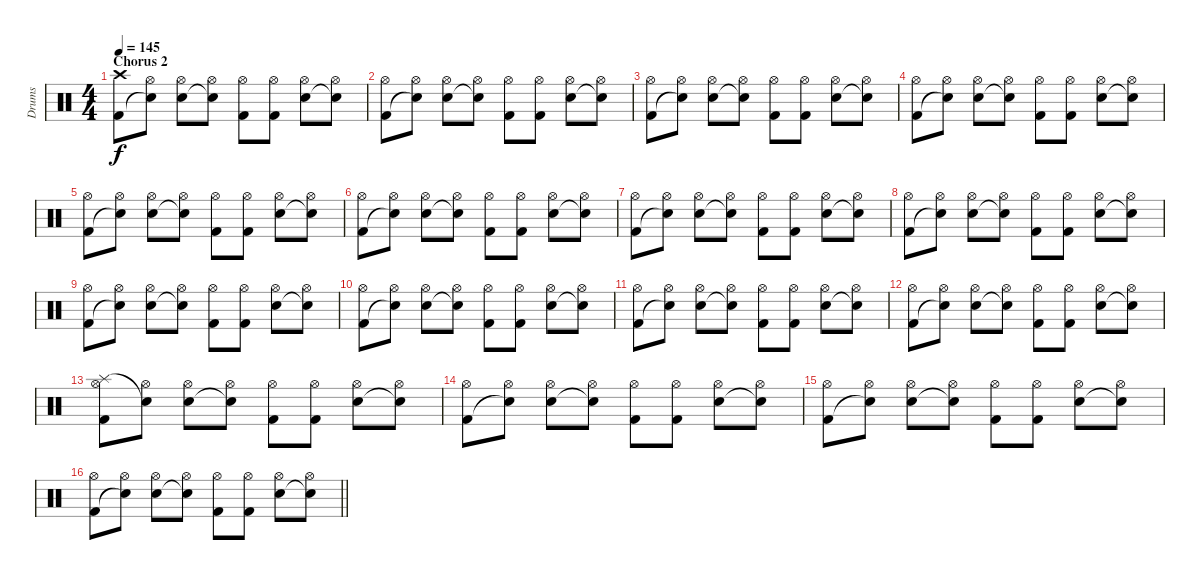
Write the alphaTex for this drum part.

\track ("Drums" "Drums") {instrument percussion}
\staff {score}
\articulation defaults
\ts (4 4)
\section ("" "Chorus 2")
\tempo 145
\clef neutral
\ks c
("Crash high (hit)" "Kick (hit) 2").8{dy f} ("Hi-Hat (open)" "Snare (hit)"{t}).8 ("Hi-Hat (open)" "Electric Snare (hit)").8 ("Hi-Hat (open)" "Snare (hit)"{t}).8 ("Hi-Hat (open)" "Kick (hit) 2").8 ("Hi-Hat (open)" "Kick (hit) 2").8 ("Hi-Hat (open)" "Electric Snare (hit)").8 ("Hi-Hat (open)" "Snare (hit)"{t}).8 |
("Hi-Hat (open)" "Kick (hit) 2").8 ("Hi-Hat (open)" "Snare (hit)"{t}).8 ("Hi-Hat (open)" "Electric Snare (hit)").8 ("Hi-Hat (open)" "Snare (hit)"{t}).8 ("Hi-Hat (open)" "Kick (hit) 2").8 ("Hi-Hat (open)" "Kick (hit) 2").8 ("Hi-Hat (open)" "Electric Snare (hit)").8 ("Hi-Hat (open)" "Snare (hit)"{t}).8 |
("Hi-Hat (open)" "Kick (hit) 2").8 ("Hi-Hat (open)" "Snare (hit)"{t}).8 ("Hi-Hat (open)" "Electric Snare (hit)").8 ("Hi-Hat (open)" "Snare (hit)"{t}).8 ("Hi-Hat (open)" "Kick (hit) 2").8 ("Hi-Hat (open)" "Kick (hit) 2").8 ("Hi-Hat (open)" "Electric Snare (hit)").8 ("Hi-Hat (open)" "Snare (hit)"{t}).8 |
("Hi-Hat (open)" "Kick (hit) 2").8 ("Hi-Hat (open)" "Snare (hit)"{t}).8 ("Hi-Hat (open)" "Electric Snare (hit)").8 ("Hi-Hat (open)" "Snare (hit)"{t}).8 ("Hi-Hat (open)" "Kick (hit) 2").8 ("Hi-Hat (open)" "Kick (hit) 2").8 ("Hi-Hat (open)" "Electric Snare (hit)").8 ("Hi-Hat (open)" "Snare (hit)"{t}).8 |
("Hi-Hat (open)" "Kick (hit) 2").8 ("Hi-Hat (open)" "Snare (hit)"{t}).8 ("Hi-Hat (open)" "Electric Snare (hit)").8 ("Hi-Hat (open)" "Snare (hit)"{t}).8 ("Hi-Hat (open)" "Kick (hit) 2").8 ("Hi-Hat (open)" "Kick (hit) 2").8 ("Hi-Hat (open)" "Electric Snare (hit)").8 ("Hi-Hat (open)" "Snare (hit)"{t}).8 |
("Hi-Hat (open)" "Kick (hit) 2").8 ("Hi-Hat (open)" "Snare (hit)"{t}).8 ("Hi-Hat (open)" "Electric Snare (hit)").8 ("Hi-Hat (open)" "Snare (hit)"{t}).8 ("Hi-Hat (open)" "Kick (hit) 2").8 ("Hi-Hat (open)" "Kick (hit) 2").8 ("Hi-Hat (open)" "Electric Snare (hit)").8 ("Hi-Hat (open)" "Snare (hit)"{t}).8 |
("Hi-Hat (open)" "Kick (hit) 2").8 ("Hi-Hat (open)" "Snare (hit)"{t}).8 ("Hi-Hat (open)" "Electric Snare (hit)").8 ("Hi-Hat (open)" "Snare (hit)"{t}).8 ("Hi-Hat (open)" "Kick (hit) 2").8 ("Hi-Hat (open)" "Kick (hit) 2").8 ("Hi-Hat (open)" "Electric Snare (hit)").8 ("Hi-Hat (open)" "Snare (hit)"{t}).8 |
("Hi-Hat (open)" "Kick (hit) 2").8 ("Hi-Hat (open)" "Snare (hit)"{t}).8 ("Hi-Hat (open)" "Electric Snare (hit)").8 ("Hi-Hat (open)" "Snare (hit)"{t}).8 ("Hi-Hat (open)" "Kick (hit) 2").8 ("Hi-Hat (open)" "Kick (hit) 2").8 ("Hi-Hat (open)" "Electric Snare (hit)").8 ("Hi-Hat (open)" "Snare (hit)"{t}).8 |
("Hi-Hat (open)" "Kick (hit) 2").8 ("Hi-Hat (open)" "Snare (hit)"{t}).8 ("Hi-Hat (open)" "Electric Snare (hit)").8 ("Hi-Hat (open)" "Snare (hit)"{t}).8 ("Hi-Hat (open)" "Kick (hit) 2").8 ("Hi-Hat (open)" "Kick (hit) 2").8 ("Hi-Hat (open)" "Electric Snare (hit)").8 ("Hi-Hat (open)" "Snare (hit)"{t}).8 |
("Hi-Hat (open)" "Kick (hit) 2").8 ("Hi-Hat (open)" "Snare (hit)"{t}).8 ("Hi-Hat (open)" "Electric Snare (hit)").8 ("Hi-Hat (open)" "Snare (hit)"{t}).8 ("Hi-Hat (open)" "Kick (hit) 2").8 ("Hi-Hat (open)" "Kick (hit) 2").8 ("Hi-Hat (open)" "Electric Snare (hit)").8 ("Hi-Hat (open)" "Snare (hit)"{t}).8 |
("Hi-Hat (open)" "Kick (hit) 2").8 ("Hi-Hat (open)" "Snare (hit)"{t}).8 ("Hi-Hat (open)" "Electric Snare (hit)").8 ("Hi-Hat (open)" "Snare (hit)"{t}).8 ("Hi-Hat (open)" "Kick (hit) 2").8 ("Hi-Hat (open)" "Kick (hit) 2").8 ("Hi-Hat (open)" "Electric Snare (hit)").8 ("Hi-Hat (open)" "Snare (hit)"{t}).8 |
("Hi-Hat (open)" "Kick (hit) 2").8 ("Hi-Hat (open)" "Snare (hit)"{t}).8 ("Hi-Hat (open)" "Electric Snare (hit)").8 ("Hi-Hat (open)" "Snare (hit)"{t}).8 ("Hi-Hat (open)" "Kick (hit) 2").8 ("Hi-Hat (open)" "Kick (hit) 2").8 ("Hi-Hat (open)" "Electric Snare (hit)").8 ("Hi-Hat (open)" "Snare (hit)"{t}).8 |
("Hi-Hat (open)" "Splash (hit)" "Kick (hit) 2").8 ("Hi-Hat (open)" "Snare (hit)"{t}).8 ("Hi-Hat (open)" "Electric Snare (hit)").8 ("Hi-Hat (open)" "Snare (hit)"{t}).8 ("Hi-Hat (open)" "Kick (hit) 2").8 ("Hi-Hat (open)" "Kick (hit) 2").8 ("Hi-Hat (open)" "Electric Snare (hit)").8 ("Hi-Hat (open)" "Snare (hit)"{t}).8 |
("Hi-Hat (open)" "Kick (hit) 2").8 ("Hi-Hat (open)" "Snare (hit)"{t}).8 ("Hi-Hat (open)" "Electric Snare (hit)").8 ("Hi-Hat (open)" "Snare (hit)"{t}).8 ("Hi-Hat (open)" "Kick (hit) 2").8 ("Hi-Hat (open)" "Kick (hit) 2").8 ("Hi-Hat (open)" "Electric Snare (hit)").8 ("Hi-Hat (open)" "Snare (hit)"{t}).8 |
("Hi-Hat (open)" "Kick (hit) 2").8 ("Hi-Hat (open)" "Snare (hit)"{t}).8 ("Hi-Hat (open)" "Electric Snare (hit)").8 ("Hi-Hat (open)" "Snare (hit)"{t}).8 ("Hi-Hat (open)" "Kick (hit) 2").8 ("Hi-Hat (open)" "Kick (hit) 2").8 ("Hi-Hat (open)" "Electric Snare (hit)").8 ("Hi-Hat (open)" "Snare (hit)"{t}).8 |
\barLineRight lightlight
("Hi-Hat (open)" "Kick (hit) 2").8 ("Hi-Hat (open)" "Snare (hit)"{t}).8 ("Hi-Hat (open)" "Electric Snare (hit)").8 ("Hi-Hat (open)" "Snare (hit)"{t}).8 ("Hi-Hat (open)" "Kick (hit) 2").8 ("Hi-Hat (open)" "Kick (hit) 2").8 ("Hi-Hat (open)" "Electric Snare (hit)").8 ("Hi-Hat (open)" "Snare (hit)"{t}).8
